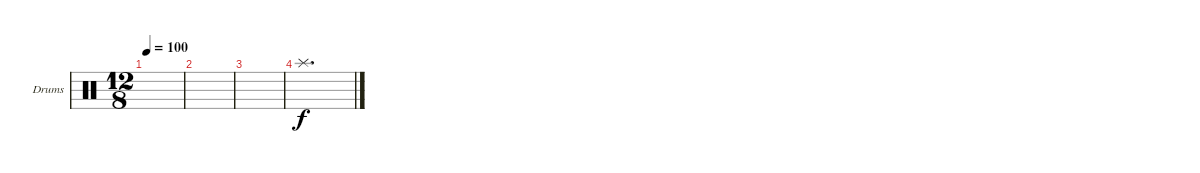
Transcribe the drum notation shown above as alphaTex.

\defaultSystemsLayout 4
\bracketExtendMode groupsimilarinstruments
\firstSystemTrackNameOrientation horizontal
\otherSystemsTrackNameOrientation horizontal
\track ("Drumkit" "Drums") {instrument percussion}
\staff {score}
\articulation defaults
\ts (12 8)
\tempo 100
\clef neutral
\scale
0.333333
\ks c
|
\scale
0.333333 |
\scale
0.333333 |
"Splash (hit)".1{d}
